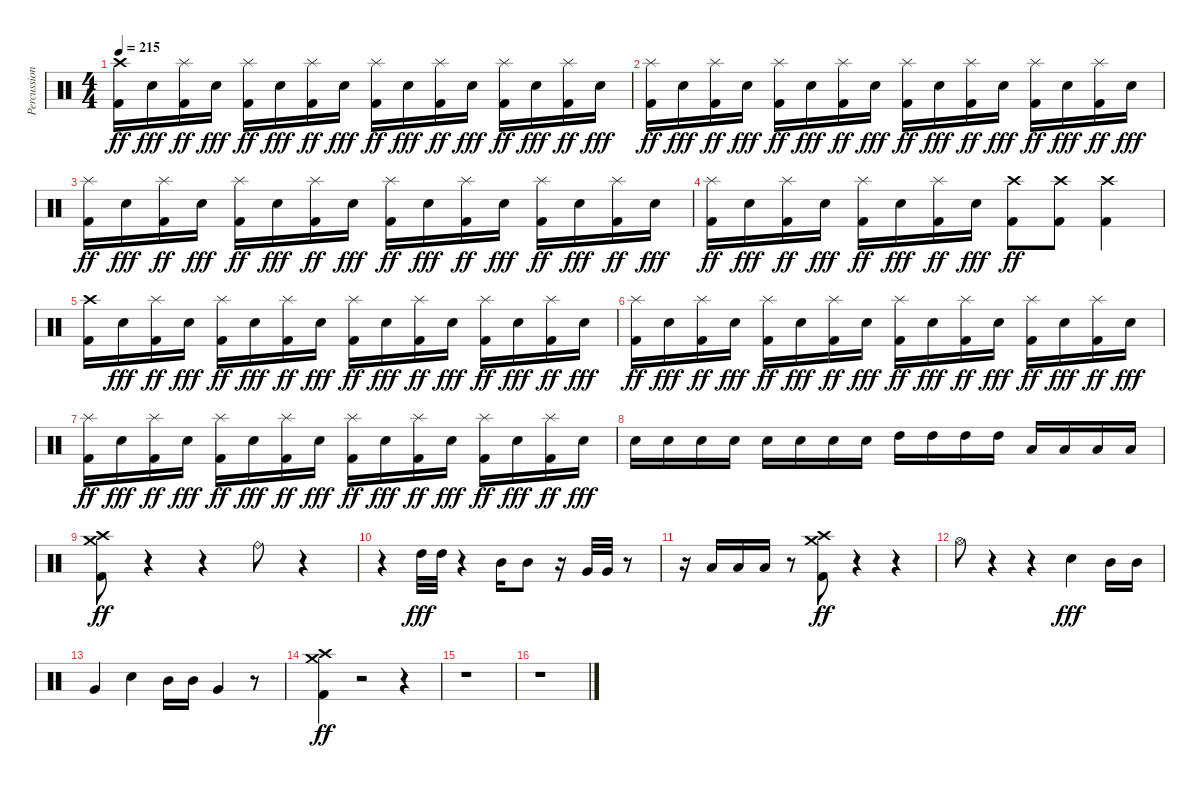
\track ("Percussion" "Percussion") {instrument percussion}
\staff {score}
\articulation defaults
\ts (4 4)
\tempo 215
\clef neutral
\ks c
("Kick (hit) 2" "Crash high (hit)").16{dy ff} "Electric Snare (hit)".16{dy fff} ("Kick (hit) 2" "Splash (hit)").16{dy ff} "Electric Snare (hit)".16{dy fff} ("Kick (hit) 2" "Splash (hit)").16{dy ff} "Electric Snare (hit)".16{dy fff} ("Kick (hit) 2" "Splash (hit)").16{dy ff} "Electric Snare (hit)".16{dy fff} ("Kick (hit) 2" "Splash (hit)").16{dy ff} "Electric Snare (hit)".16{dy fff} ("Kick (hit) 2" "Splash (hit)").16{dy ff} "Electric Snare (hit)".16{dy fff} ("Kick (hit) 2" "Splash (hit)").16{dy ff} "Electric Snare (hit)".16{dy fff} ("Kick (hit) 2" "Splash (hit)").16{dy ff} "Electric Snare (hit)".16{dy fff} |
("Kick (hit) 2" "Splash (hit)").16{dy ff} "Electric Snare (hit)".16{dy fff} ("Kick (hit) 2" "Splash (hit)").16{dy ff} "Electric Snare (hit)".16{dy fff} ("Kick (hit) 2" "Splash (hit)").16{dy ff} "Electric Snare (hit)".16{dy fff} ("Kick (hit) 2" "Splash (hit)").16{dy ff} "Electric Snare (hit)".16{dy fff} ("Kick (hit) 2" "Splash (hit)").16{dy ff} "Electric Snare (hit)".16{dy fff} ("Kick (hit) 2" "Splash (hit)").16{dy ff} "Electric Snare (hit)".16{dy fff} ("Kick (hit) 2" "Splash (hit)").16{dy ff} "Electric Snare (hit)".16{dy fff} ("Kick (hit) 2" "Splash (hit)").16{dy ff} "Electric Snare (hit)".16{dy fff} |
("Kick (hit) 2" "Splash (hit)").16{dy ff} "Electric Snare (hit)".16{dy fff} ("Kick (hit) 2" "Splash (hit)").16{dy ff} "Electric Snare (hit)".16{dy fff} ("Kick (hit) 2" "Splash (hit)").16{dy ff} "Electric Snare (hit)".16{dy fff} ("Kick (hit) 2" "Splash (hit)").16{dy ff} "Electric Snare (hit)".16{dy fff} ("Kick (hit) 2" "Splash (hit)").16{dy ff} "Electric Snare (hit)".16{dy fff} ("Kick (hit) 2" "Splash (hit)").16{dy ff} "Electric Snare (hit)".16{dy fff} ("Kick (hit) 2" "Splash (hit)").16{dy ff} "Electric Snare (hit)".16{dy fff} ("Kick (hit) 2" "Splash (hit)").16{dy ff} "Electric Snare (hit)".16{dy fff} |
("Kick (hit) 2" "Splash (hit)").16{dy ff} "Electric Snare (hit)".16{dy fff} ("Kick (hit) 2" "Splash (hit)").16{dy ff} "Electric Snare (hit)".16{dy fff} ("Kick (hit) 2" "Splash (hit)").16{dy ff} "Electric Snare (hit)".16{dy fff} ("Kick (hit) 2" "Splash (hit)").16{dy ff} "Electric Snare (hit)".16{dy fff} ("Kick (hit) 2" "Crash high (hit)").8{dy ff} ("Kick (hit) 2" "Crash high (hit)").8 ("Kick (hit) 2" "Crash high (hit)").4 |
("Kick (hit) 2" "Crash high (hit)").16 "Electric Snare (hit)".16{dy fff} ("Kick (hit) 2" "Splash (hit)").16{dy ff} "Electric Snare (hit)".16{dy fff} ("Kick (hit) 2" "Splash (hit)").16{dy ff} "Electric Snare (hit)".16{dy fff} ("Kick (hit) 2" "Splash (hit)").16{dy ff} "Electric Snare (hit)".16{dy fff} ("Kick (hit) 2" "Splash (hit)").16{dy ff} "Electric Snare (hit)".16{dy fff} ("Kick (hit) 2" "Splash (hit)").16{dy ff} "Electric Snare (hit)".16{dy fff} ("Kick (hit) 2" "Splash (hit)").16{dy ff} "Electric Snare (hit)".16{dy fff} ("Kick (hit) 2" "Splash (hit)").16{dy ff} "Electric Snare (hit)".16{dy fff} |
("Kick (hit) 2" "Splash (hit)").16{dy ff} "Electric Snare (hit)".16{dy fff} ("Kick (hit) 2" "Splash (hit)").16{dy ff} "Electric Snare (hit)".16{dy fff} ("Kick (hit) 2" "Splash (hit)").16{dy ff} "Electric Snare (hit)".16{dy fff} ("Kick (hit) 2" "Splash (hit)").16{dy ff} "Electric Snare (hit)".16{dy fff} ("Kick (hit) 2" "Splash (hit)").16{dy ff} "Electric Snare (hit)".16{dy fff} ("Kick (hit) 2" "Splash (hit)").16{dy ff} "Electric Snare (hit)".16{dy fff} ("Kick (hit) 2" "Splash (hit)").16{dy ff} "Electric Snare (hit)".16{dy fff} ("Kick (hit) 2" "Splash (hit)").16{dy ff} "Electric Snare (hit)".16{dy fff} |
("Kick (hit) 2" "Splash (hit)").16{dy ff} "Electric Snare (hit)".16{dy fff} ("Kick (hit) 2" "Splash (hit)").16{dy ff} "Electric Snare (hit)".16{dy fff} ("Kick (hit) 2" "Splash (hit)").16{dy ff} "Electric Snare (hit)".16{dy fff} ("Kick (hit) 2" "Splash (hit)").16{dy ff} "Electric Snare (hit)".16{dy fff} ("Kick (hit) 2" "Splash (hit)").16{dy ff} "Electric Snare (hit)".16{dy fff} ("Kick (hit) 2" "Splash (hit)").16{dy ff} "Electric Snare (hit)".16{dy fff} ("Kick (hit) 2" "Splash (hit)").16{dy ff} "Electric Snare (hit)".16{dy fff} ("Kick (hit) 2" "Splash (hit)").16{dy ff} "Electric Snare (hit)".16{dy fff} |
"Electric Snare (hit)".16 "Electric Snare (hit)".16 "Electric Snare (hit)".16 "Electric Snare (hit)".16 "Electric Snare (hit)".16 "Electric Snare (hit)".16 "Electric Snare (hit)".16 "Electric Snare (hit)".16 "High Tom (hit)".16 "High Tom (hit)".16 "High Tom (hit)".16 "High Tom (hit)".16 "Low Floor Tom (hit)".16 "Low Floor Tom (hit)".16 "Low Floor Tom (hit)".16 "Low Floor Tom (hit)".16 |
("Kick (hit) 2" "Crash medium (hit)" "Crash high (hit)").8{dy ff} r.4 r.4 "Ride (bell)".8 r.4 |
r.4 "High Tom (hit)".32{dy fff} "High Tom (hit)".32 r.4 "Mid Tom (hit)".16 "Mid Tom (hit)".8 r.16 "Very Low Tom (hit)".32 "Very Low Tom (hit)".32 r.8 |
r.16 "Low Floor Tom (hit)".16 "Low Floor Tom (hit)".16 "Low Floor Tom (hit)".16 r.8 ("Kick (hit) 2" "Crash medium (hit)" "Crash high (hit)").8{dy ff} r.4 r.4 |
"Hi-Hat (open)".8 r.4 r.4 "Electric Snare (hit)".4{dy fff} "Mid Tom (hit)".16 "Mid Tom (hit)".16 |
"Very Low Tom (hit)".4 "Electric Snare (hit)".4 "Mid Tom (hit)".16 "Mid Tom (hit)".16 "Very Low Tom (hit)".4 r.8 |
("Kick (hit) 2" "Crash high (hit)" "Crash medium (hit)").4{dy ff} r.2 r.4 |
r.1 |
r.1
